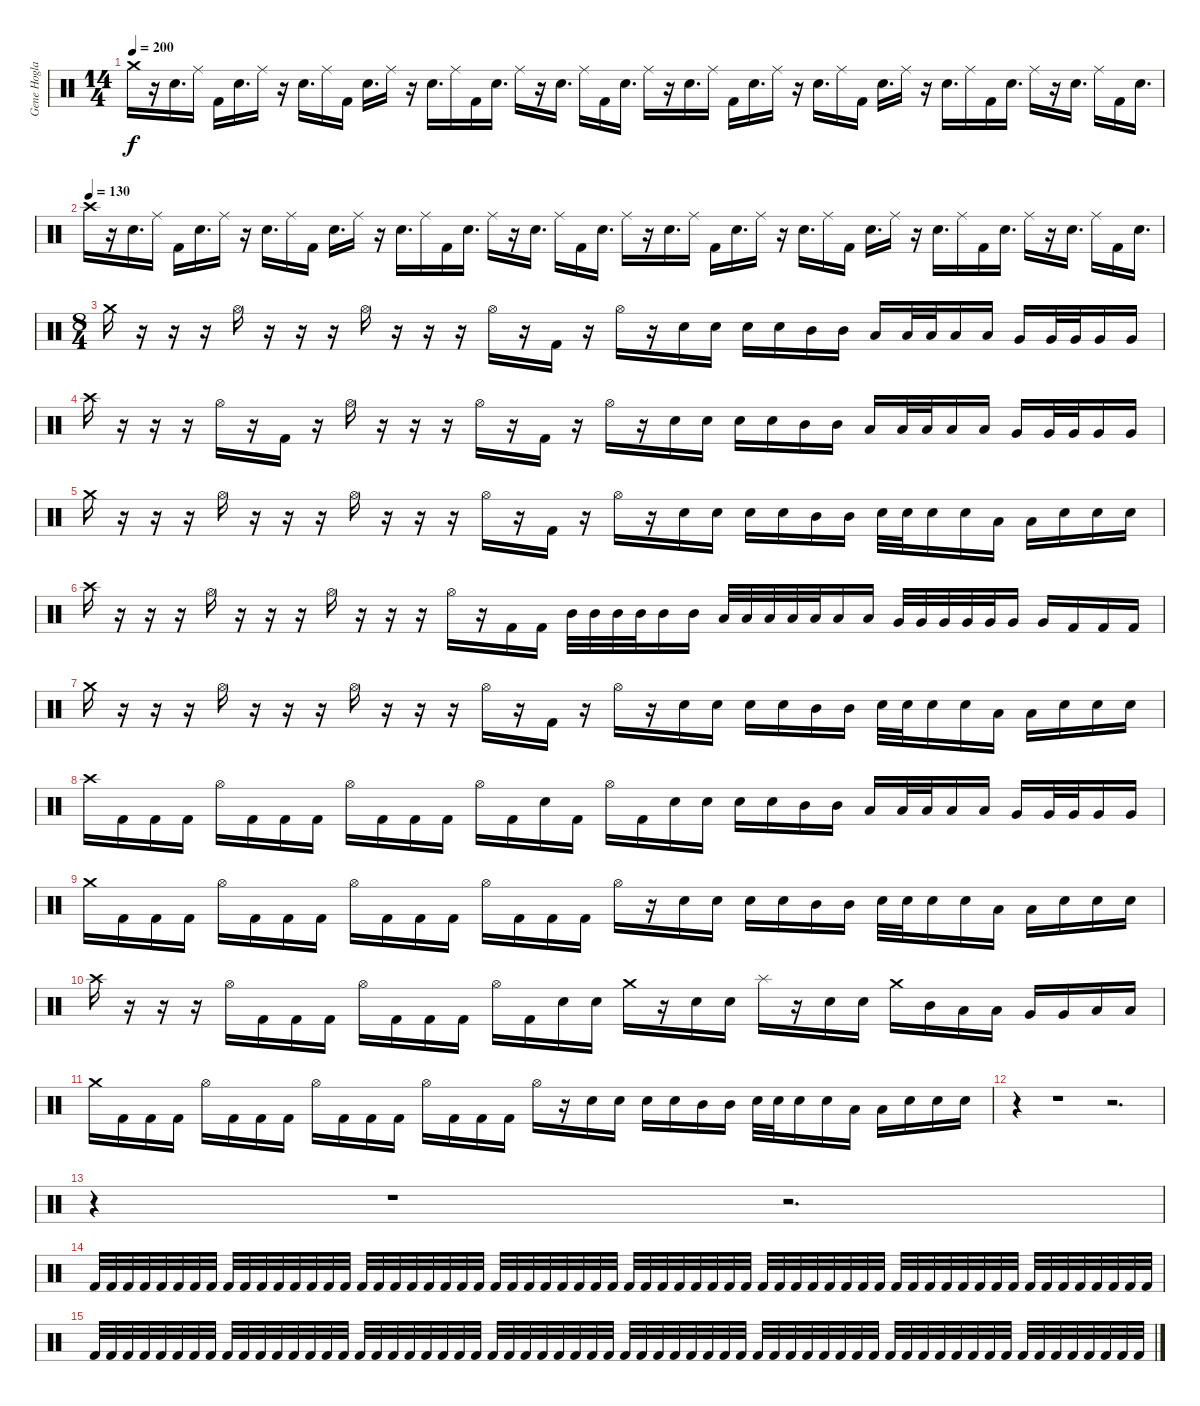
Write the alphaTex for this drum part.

\track ("Gene Hoglan" "Gene Hogla") {instrument percussion}
\staff {score}
\articulation defaults
\ts (14 4)
\tempo 200
\clef neutral
\ks c "Crash medium (hit)".16{dy f}
r.16 "Snare (hit) 2".16{d} "Ride (middle)".16 "Kick (hit) 2".16 "Snare (hit) 2".16{d} "Ride (middle)".16 r.16 "Snare (hit) 2".16{d} "Ride (middle)".16 "Kick (hit) 2".16 "Snare (hit) 2".16{d} "Ride (middle)".16 r.16 "Snare (hit) 2".16{d} "Ride (middle)".16 "Kick (hit) 2".16 "Snare (hit) 2".16{d} "Ride (middle)".16 r.16 "Snare (hit) 2".16{d} "Ride (middle)".16 "Kick (hit) 2".16 "Snare (hit) 2".16{d} "Ride (middle)".16 r.16 "Snare (hit) 2".16{d} "Ride (middle)".16 "Kick (hit) 2".16 "Snare (hit) 2".16{d} "Ride (middle)".16 r.16 "Snare (hit) 2".16{d} "Ride (middle)".16 "Kick (hit) 2".16 "Snare (hit) 2".16{d} "Ride (middle)".16 r.16 "Snare (hit) 2".16{d} "Ride (middle)".16 "Kick (hit) 2".16 "Snare (hit) 2".16{d} "Ride (middle)".16 r.16 "Snare (hit) 2".16{d} "Ride (middle)".16 "Kick (hit) 2".16 "Snare (hit) 2".16{d} |
\tempo (130)
"Crash high (hit)".16 r.16 "Snare (hit) 2".16{d} "Ride (middle)".16 "Kick (hit) 2".16 "Snare (hit) 2".16{d} "Ride (middle)".16 r.16 "Snare (hit) 2".16{d} "Ride (middle)".16 "Kick (hit) 2".16 "Snare (hit) 2".16{d} "Ride (middle)".16 r.16 "Snare (hit) 2".16{d} "Ride (middle)".16 "Kick (hit) 2".16 "Snare (hit) 2".16{d} "Ride (middle)".16 r.16 "Snare (hit) 2".16{d} "Ride (middle)".16 "Kick (hit) 2".16 "Snare (hit) 2".16{d} "Ride (middle)".16 r.16 "Snare (hit) 2".16{d} "Ride (middle)".16 "Kick (hit) 2".16 "Snare (hit) 2".16{d} "Ride (middle)".16 r.16 "Snare (hit) 2".16{d} "Ride (middle)".16 "Kick (hit) 2".16 "Snare (hit) 2".16{d} "Ride (middle)".16 r.16 "Snare (hit) 2".16{d} "Ride (middle)".16 "Kick (hit) 2".16 "Snare (hit) 2".16{d} "Ride (middle)".16 r.16 "Snare (hit) 2".16{d} "Ride (middle)".16 "Kick (hit) 2".16 "Snare (hit) 2".16{d} |
\ts (8 4)
"Crash medium (hit)".16 r.16 r.16 r.16 "Hi-Hat (open)".16 r.16 r.16 r.16 "Hi-Hat (open)".16 r.16 r.16 r.16 "Hi-Hat (open)".16 r.16 "Kick (hit) 2".16 r.16 "Hi-Hat (open)".16 r.16 "Snare (hit) 2".16 "Snare (hit) 2".16 "Snare (hit) 2".16 "Snare (hit) 2".16 "Mid Tom (hit)".16 "Mid Tom (hit)".16 "Low Tom (hit)".16 "Low Tom (hit)".32 "Low Tom (hit)".32 "Low Tom (hit)".16 "Low Tom (hit)".16 "Very Low Tom (hit)".16 "Very Low Tom (hit)".32 "Very Low Tom (hit)".32 "Very Low Tom (hit)".16 "Very Low Tom (hit)".16 |
"Crash high (hit)".16 r.16 r.16 r.16 "Hi-Hat (open)".16 r.16 "Kick (hit) 2".16 r.16 "Hi-Hat (open)".16 r.16 r.16 r.16 "Hi-Hat (open)".16 r.16 "Kick (hit) 2".16 r.16 "Hi-Hat (open)".16 r.16 "Snare (hit) 2".16 "Snare (hit) 2".16 "Snare (hit) 2".16 "Snare (hit) 2".16 "Mid Tom (hit)".16 "Mid Tom (hit)".16 "Low Tom (hit)".16 "Low Tom (hit)".32 "Low Tom (hit)".32 "Low Tom (hit)".16 "Low Tom (hit)".16 "Very Low Tom (hit)".16 "Very Low Tom (hit)".32 "Very Low Tom (hit)".32 "Very Low Tom (hit)".16 "Very Low Tom (hit)".16 |
"Crash medium (hit)".16 r.16 r.16 r.16 "Hi-Hat (open)".16 r.16 r.16 r.16 "Hi-Hat (open)".16 r.16 r.16 r.16 "Hi-Hat (open)".16 r.16 "Kick (hit) 2".16 r.16 "Hi-Hat (open)".16 r.16 "Snare (hit) 2".16 "Snare (hit) 2".16 "Snare (hit) 2".16 "Snare (hit) 2".16 "Mid Tom (hit)".16 "Mid Tom (hit)".16 "Snare (hit) 2".32 "Snare (hit) 2".32 "Snare (hit) 2".16 "Snare (hit) 2".16 "Low Tom (hit)".16 "Low Tom (hit)".16 "Snare (hit) 2".16 "Snare (hit) 2".16 "Snare (hit) 2".16 |
"Crash high (hit)".16 r.16 r.16 r.16 "Hi-Hat (open)".16 r.16 r.16 r.16 "Hi-Hat (open)".16 r.16 r.16 r.16 "Hi-Hat (open)".16 r.16 "Kick (hit) 2".16 "Kick (hit) 2".16 "Mid Tom (hit)".32 "Mid Tom (hit)".32 "Mid Tom (hit)".32 "Mid Tom (hit)".32 "Mid Tom (hit)".16 "Mid Tom (hit)".16 "Low Tom (hit)".32 "Low Tom (hit)".32 "Low Tom (hit)".32 "Low Tom (hit)".32 "Low Tom (hit)".32 "Low Tom (hit)".16 "Low Tom (hit)".16 "Very Low Tom (hit)".32 "Very Low Tom (hit)".32 "Very Low Tom (hit)".32 "Very Low Tom (hit)".32 "Very Low Tom (hit)".32 "Very Low Tom (hit)".16 "Very Low Tom (hit)".16 "Kick (hit) 2".16 "Kick (hit) 2".16 "Kick (hit) 2".16 |
"Crash medium (hit)".16 r.16 r.16 r.16 "Hi-Hat (open)".16 r.16 r.16 r.16 "Hi-Hat (open)".16 r.16 r.16 r.16 "Hi-Hat (open)".16 r.16 "Kick (hit) 2".16 r.16 "Hi-Hat (open)".16 r.16 "Snare (hit) 2".16 "Snare (hit) 2".16 "Snare (hit) 2".16 "Snare (hit) 2".16 "Mid Tom (hit)".16 "Mid Tom (hit)".16 "Snare (hit) 2".32 "Snare (hit) 2".32 "Snare (hit) 2".16 "Snare (hit) 2".16 "Low Tom (hit)".16 "Low Tom (hit)".16 "Snare (hit) 2".16 "Snare (hit) 2".16 "Snare (hit) 2".16 |
"Crash high (hit)".16 "Kick (hit) 2".16 "Kick (hit) 2".16 "Kick (hit) 2".16 "Hi-Hat (open)".16 "Kick (hit) 2".16 "Kick (hit) 2".16 "Kick (hit) 2".16 "Hi-Hat (open)".16 "Kick (hit) 2".16 "Kick (hit) 2".16 "Kick (hit) 2".16 "Hi-Hat (open)".16 "Kick (hit) 2".16 "Snare (hit) 2".16 "Kick (hit) 2".16 "Hi-Hat (open)".16 "Kick (hit) 2".16 "Snare (hit) 2".16 "Snare (hit) 2".16 "Snare (hit) 2".16 "Snare (hit) 2".16 "Mid Tom (hit)".16 "Mid Tom (hit)".16 "Low Tom (hit)".16 "Low Tom (hit)".32 "Low Tom (hit)".32 "Low Tom (hit)".16 "Low Tom (hit)".16 "Very Low Tom (hit)".16 "Very Low Tom (hit)".32 "Very Low Tom (hit)".32 "Very Low Tom (hit)".16 "Very Low Tom (hit)".16 |
"Crash medium (hit)".16 "Kick (hit) 2".16 "Kick (hit) 2".16 "Kick (hit) 2".16 "Hi-Hat (open)".16 "Kick (hit) 2".16 "Kick (hit) 2".16 "Kick (hit) 2".16 "Hi-Hat (open)".16 "Kick (hit) 2".16 "Kick (hit) 2".16 "Kick (hit) 2".16 "Hi-Hat (open)".16 "Kick (hit) 2".16 "Kick (hit) 2".16 "Kick (hit) 2".16 "Hi-Hat (open)".16 r.16 "Snare (hit) 2".16 "Snare (hit) 2".16 "Snare (hit) 2".16 "Snare (hit) 2".16 "Mid Tom (hit)".16 "Mid Tom (hit)".16 "Snare (hit) 2".32 "Snare (hit) 2".32 "Snare (hit) 2".16 "Snare (hit) 2".16 "Low Tom (hit)".16 "Low Tom (hit)".16 "Snare (hit) 2".16 "Snare (hit) 2".16 "Snare (hit) 2".16 |
"Crash high (hit)".16 r.16 r.16 r.16 "Hi-Hat (open)".16 "Kick (hit) 2".16 "Kick (hit) 2".16 "Kick (hit) 2".16 "Hi-Hat (open)".16 "Kick (hit) 2".16 "Kick (hit) 2".16 "Kick (hit) 2".16 "Hi-Hat (open)".16 "Kick (hit) 2".16 "Snare (hit) 2".16 "Snare (hit) 2".16 "Crash medium (hit)".16 r.16 "Snare (hit) 2".16 "Snare (hit) 2".16 "Splash (hit)".16 r.16 "Snare (hit) 2".16 "Snare (hit) 2".16 "Crash medium (hit)".16 "Mid Tom (hit)".16 "Low Tom (hit)".16 "Low Tom (hit)".16 "Very Low Tom (hit)".16 "Very Low Tom (hit)".16 "Low Floor Tom (hit)".16 "Low Floor Tom (hit)".16 |
"Crash medium (hit)".16 "Kick (hit) 2".16 "Kick (hit) 2".16 "Kick (hit) 2".16 "Hi-Hat (open)".16 "Kick (hit) 2".16 "Kick (hit) 2".16 "Kick (hit) 2".16 "Hi-Hat (open)".16 "Kick (hit) 2".16 "Kick (hit) 2".16 "Kick (hit) 2".16 "Hi-Hat (open)".16 "Kick (hit) 2".16 "Kick (hit) 2".16 "Kick (hit) 2".16 "Hi-Hat (open)".16 r.16 "Snare (hit) 2".16 "Snare (hit) 2".16 "Snare (hit) 2".16 "Snare (hit) 2".16 "Mid Tom (hit)".16 "Mid Tom (hit)".16 "Snare (hit) 2".32 "Snare (hit) 2".32 "Snare (hit) 2".16 "Snare (hit) 2".16 "Low Tom (hit)".16 "Low Tom (hit)".16 "Snare (hit) 2".16 "Snare (hit) 2".16 "Snare (hit) 2".16 |
r.4 r.1 r.2{d} |
r.4 r.1 r.2{d} |
"Kick (hit) 2".32 "Kick (hit) 2".32 "Kick (hit) 2".32 "Kick (hit) 2".32 "Kick (hit) 2".32 "Kick (hit) 2".32 "Kick (hit) 2".32 "Kick (hit) 2".32 "Kick (hit) 2".32 "Kick (hit) 2".32 "Kick (hit) 2".32 "Kick (hit) 2".32 "Kick (hit) 2".32 "Kick (hit) 2".32 "Kick (hit) 2".32 "Kick (hit) 2".32 "Kick (hit) 2".32 "Kick (hit) 2".32 "Kick (hit) 2".32 "Kick (hit) 2".32 "Kick (hit) 2".32 "Kick (hit) 2".32 "Kick (hit) 2".32 "Kick (hit) 2".32 "Kick (hit) 2".32 "Kick (hit) 2".32 "Kick (hit) 2".32 "Kick (hit) 2".32 "Kick (hit) 2".32 "Kick (hit) 2".32 "Kick (hit) 2".32 "Kick (hit) 2".32 "Kick (hit) 2".32 "Kick (hit) 2".32 "Kick (hit) 2".32 "Kick (hit) 2".32 "Kick (hit) 2".32 "Kick (hit) 2".32 "Kick (hit) 2".32 "Kick (hit) 2".32 "Kick (hit) 2".32 "Kick (hit) 2".32 "Kick (hit) 2".32 "Kick (hit) 2".32 "Kick (hit) 2".32 "Kick (hit) 2".32 "Kick (hit) 2".32 "Kick (hit) 2".32 "Kick (hit) 2".32 "Kick (hit) 2".32 "Kick (hit) 2".32 "Kick (hit) 2".32 "Kick (hit) 2".32 "Kick (hit) 2".32 "Kick (hit) 2".32 "Kick (hit) 2".32 "Kick (hit) 2".32 "Kick (hit) 2".32 "Kick (hit) 2".32 "Kick (hit) 2".32 "Kick (hit) 2".32 "Kick (hit) 2".32 "Kick (hit) 2".32 "Kick (hit) 2".32 |
"Kick (hit) 2".32 "Kick (hit) 2".32 "Kick (hit) 2".32 "Kick (hit) 2".32 "Kick (hit) 2".32 "Kick (hit) 2".32 "Kick (hit) 2".32 "Kick (hit) 2".32 "Kick (hit) 2".32 "Kick (hit) 2".32 "Kick (hit) 2".32 "Kick (hit) 2".32 "Kick (hit) 2".32 "Kick (hit) 2".32 "Kick (hit) 2".32 "Kick (hit) 2".32 "Kick (hit) 2".32 "Kick (hit) 2".32 "Kick (hit) 2".32 "Kick (hit) 2".32 "Kick (hit) 2".32 "Kick (hit) 2".32 "Kick (hit) 2".32 "Kick (hit) 2".32 "Kick (hit) 2".32 "Kick (hit) 2".32 "Kick (hit) 2".32 "Kick (hit) 2".32 "Kick (hit) 2".32 "Kick (hit) 2".32 "Kick (hit) 2".32 "Kick (hit) 2".32 "Kick (hit) 2".32 "Kick (hit) 2".32 "Kick (hit) 2".32 "Kick (hit) 2".32 "Kick (hit) 2".32 "Kick (hit) 2".32 "Kick (hit) 2".32 "Kick (hit) 2".32 "Kick (hit) 2".32 "Kick (hit) 2".32 "Kick (hit) 2".32 "Kick (hit) 2".32 "Kick (hit) 2".32 "Kick (hit) 2".32 "Kick (hit) 2".32 "Kick (hit) 2".32 "Kick (hit) 2".32 "Kick (hit) 2".32 "Kick (hit) 2".32 "Kick (hit) 2".32 "Kick (hit) 2".32 "Kick (hit) 2".32 "Kick (hit) 2".32 "Kick (hit) 2".32 "Kick (hit) 2".32 "Kick (hit) 2".32 "Kick (hit) 2".32 "Kick (hit) 2".32 "Kick (hit) 2".32 "Kick (hit) 2".32 "Kick (hit) 2".32 "Kick (hit) 2".32
